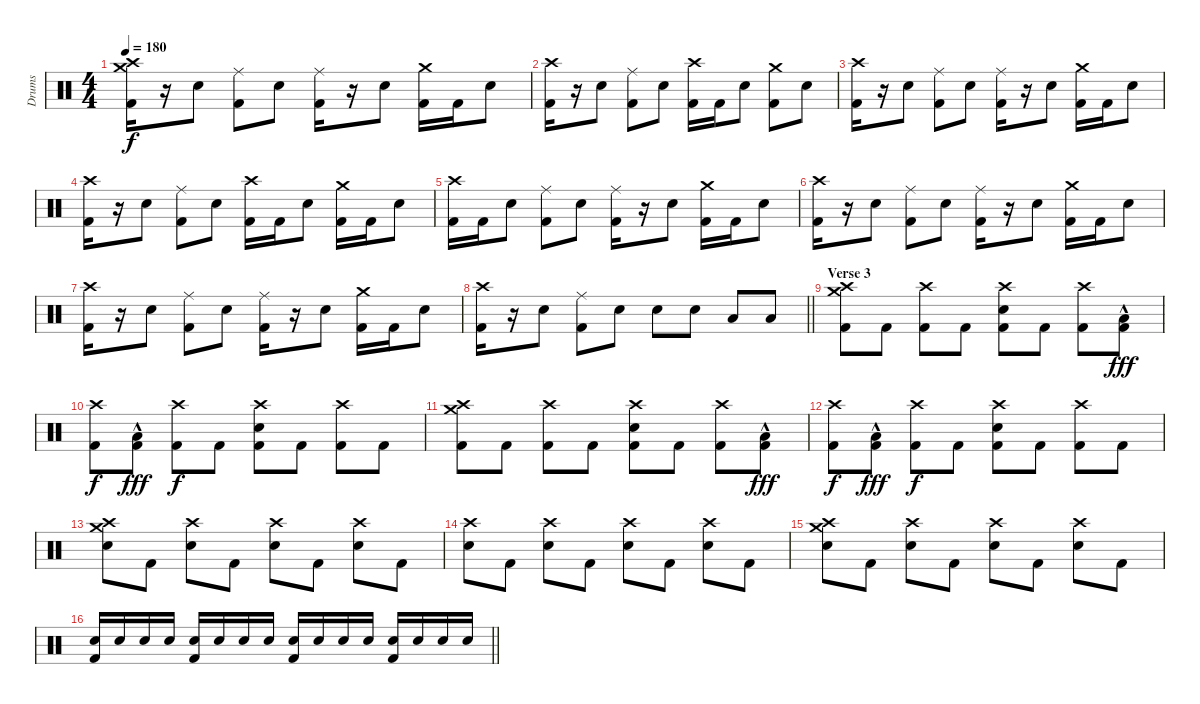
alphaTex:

\track ("Drums" "Drums") {instrument percussion}
\staff {score}
\articulation defaults
\ts (4 4)
\tempo 180
\clef neutral
\ks c
("Crash high (hit)" "Crash medium (hit)" "Kick (hit) 2").16{dy f} r.16 "Electric Snare (hit)".8 ("Ride (middle)" "Kick (hit) 2").8 "Electric Snare (hit)".8 ("Ride (middle)" "Kick (hit) 2").16 r.16 "Electric Snare (hit)".8 ("Crash medium (hit)" "Kick (hit) 2").16 "Kick (hit) 2".16 "Electric Snare (hit)".8 |
("Crash high (hit)" "Kick (hit) 2").16 r.16 "Electric Snare (hit)".8 ("Ride (middle)" "Kick (hit) 2").8 "Electric Snare (hit)".8 ("Crash high (hit)" "Kick (hit) 2").16 "Kick (hit) 2".16 "Electric Snare (hit)".8 ("Crash medium (hit)" "Kick (hit) 2").8 "Electric Snare (hit)".8 |
("Crash high (hit)" "Kick (hit) 2").16 r.16 "Electric Snare (hit)".8 ("Ride (middle)" "Kick (hit) 2").8 "Electric Snare (hit)".8 ("Ride (middle)" "Kick (hit) 2").16 r.16 "Electric Snare (hit)".8 ("Crash medium (hit)" "Kick (hit) 2").16 "Kick (hit) 2".16 "Electric Snare (hit)".8 |
("Crash high (hit)" "Kick (hit) 2").16 r.16 "Electric Snare (hit)".8 ("Ride (middle)" "Kick (hit) 2").8 "Electric Snare (hit)".8 ("Crash high (hit)" "Kick (hit) 2").16 "Kick (hit) 2".16 "Electric Snare (hit)".8 ("Crash medium (hit)" "Kick (hit) 2").16 "Kick (hit) 2".16 "Electric Snare (hit)".8 |
("Crash high (hit)" "Kick (hit) 2").16 "Kick (hit) 2".16 "Electric Snare (hit)".8 ("Ride (middle)" "Kick (hit) 2").8 "Electric Snare (hit)".8 ("Ride (middle)" "Kick (hit) 2").16 r.16 "Electric Snare (hit)".8 ("Crash medium (hit)" "Kick (hit) 2").16 "Kick (hit) 2".16 "Electric Snare (hit)".8 |
("Crash high (hit)" "Kick (hit) 2").16 r.16 "Electric Snare (hit)".8 ("Ride (middle)" "Kick (hit) 2").8 "Electric Snare (hit)".8 ("Ride (middle)" "Kick (hit) 2").16 r.16 "Electric Snare (hit)".8 ("Crash medium (hit)" "Kick (hit) 2").16 "Kick (hit) 2".16 "Electric Snare (hit)".8 |
("Crash high (hit)" "Kick (hit) 2").16 r.16 "Electric Snare (hit)".8 ("Ride (middle)" "Kick (hit) 2").8 "Electric Snare (hit)".8 ("Ride (middle)" "Kick (hit) 2").16 r.16 "Electric Snare (hit)".8 ("Crash medium (hit)" "Kick (hit) 2").16 "Kick (hit) 2".16 "Electric Snare (hit)".8 |
\barLineRight lightlight
("Crash high (hit)" "Kick (hit) 2").16 r.16 "Electric Snare (hit)".8 ("Ride (middle)" "Kick (hit) 2").8 "Electric Snare (hit)".8 "Electric Snare (hit)".8 "Electric Snare (hit)".8 "Low Tom (hit)".8 "Low Tom (hit)".8 |
\section ("" "Verse 3")
("Crash high (hit)" "Crash medium (hit)" "Kick (hit) 2").8 "Kick (hit) 2".8 ("Crash high (hit)" "Kick (hit) 2").8 "Kick (hit) 2".8 ("Crash high (hit)" "Electric Snare (hit)" "Kick (hit) 2").8 "Kick (hit) 2".8 ("Crash high (hit)" "Kick (hit) 2").8 ("Low Tom (hit)"{hac} "Kick (hit) 2").8{dy fff} |
("Crash high (hit)" "Kick (hit) 2").8{dy f} ("Low Tom (hit)"{hac} "Kick (hit) 2").8{dy fff} ("Crash high (hit)" "Kick (hit) 2").8{dy f} "Kick (hit) 2".8 ("Crash high (hit)" "Electric Snare (hit)" "Kick (hit) 2").8 "Kick (hit) 2".8 ("Crash high (hit)" "Kick (hit) 2").8 "Kick (hit) 2".8 |
("Crash high (hit)" "Crash medium (hit)" "Kick (hit) 2").8 "Kick (hit) 2".8 ("Crash high (hit)" "Kick (hit) 2").8 "Kick (hit) 2".8 ("Crash high (hit)" "Electric Snare (hit)" "Kick (hit) 2").8 "Kick (hit) 2".8 ("Crash high (hit)" "Kick (hit) 2").8 ("Low Tom (hit)"{hac} "Kick (hit) 2").8{dy fff} |
("Crash high (hit)" "Kick (hit) 2").8{dy f} ("Low Tom (hit)"{hac} "Kick (hit) 2").8{dy fff} ("Crash high (hit)" "Kick (hit) 2").8{dy f} "Kick (hit) 2".8 ("Crash high (hit)" "Electric Snare (hit)" "Kick (hit) 2").8 "Kick (hit) 2".8 ("Crash high (hit)" "Kick (hit) 2").8 "Kick (hit) 2".8 |
("Crash high (hit)" "Crash medium (hit)" "Electric Snare (hit)").8 "Kick (hit) 2".8 ("Crash high (hit)" "Electric Snare (hit)").8 "Kick (hit) 2".8 ("Crash high (hit)" "Electric Snare (hit)").8 "Kick (hit) 2".8 ("Crash high (hit)" "Electric Snare (hit)").8 "Kick (hit) 2".8 |
("Crash high (hit)" "Electric Snare (hit)").8 "Kick (hit) 2".8 ("Crash high (hit)" "Electric Snare (hit)").8 "Kick (hit) 2".8 ("Crash high (hit)" "Electric Snare (hit)").8 "Kick (hit) 2".8 ("Crash high (hit)" "Electric Snare (hit)").8 "Kick (hit) 2".8 |
("Crash high (hit)" "Crash medium (hit)" "Electric Snare (hit)").8 "Kick (hit) 2".8 ("Crash high (hit)" "Electric Snare (hit)").8 "Kick (hit) 2".8 ("Crash high (hit)" "Electric Snare (hit)").8 "Kick (hit) 2".8 ("Crash high (hit)" "Electric Snare (hit)").8 "Kick (hit) 2".8 |
\barLineRight lightlight
("Electric Snare (hit)" "Kick (hit) 2").16 "Electric Snare (hit)".16 "Electric Snare (hit)".16 "Electric Snare (hit)".16 ("Electric Snare (hit)" "Kick (hit) 2").16 "Electric Snare (hit)".16 "Electric Snare (hit)".16 "Electric Snare (hit)".16 ("Electric Snare (hit)" "Kick (hit) 2").16 "Electric Snare (hit)".16 "Electric Snare (hit)".16 "Electric Snare (hit)".16 ("Electric Snare (hit)" "Kick (hit) 2").16 "Electric Snare (hit)".16 "Electric Snare (hit)".16 "Electric Snare (hit)".16
